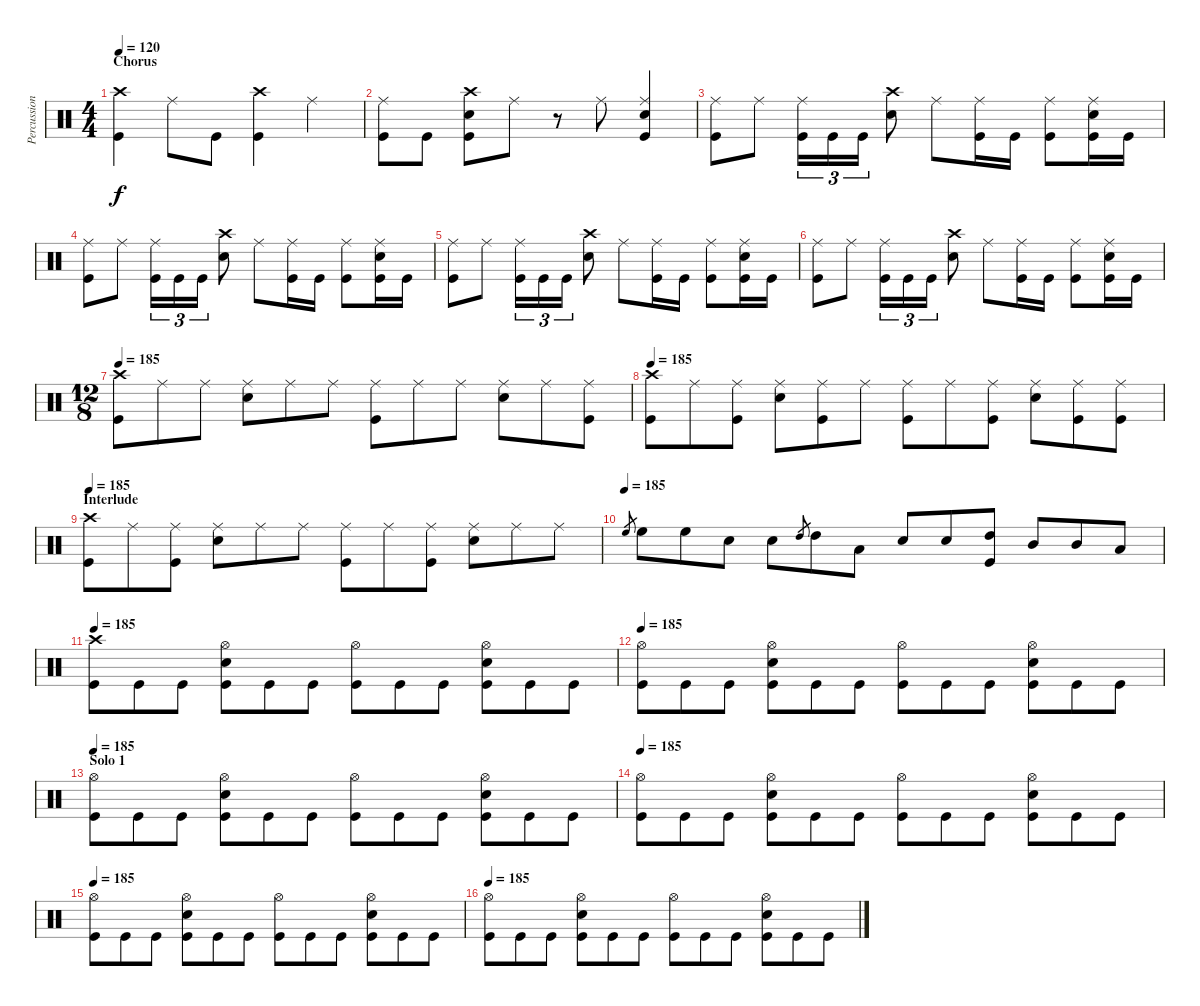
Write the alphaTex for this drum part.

\track ("Percussion" "Percussion") {instrument percussion}
\staff {score}
\articulation defaults
\ts (4 4)
\section ("" "Chorus")
\tempo 120
\clef neutral
\ks c
("Crash high (hit)" "Kick (hit)").4{dy f} "Ride (middle)".8 "Kick (hit)".8 ("Crash high (hit)" "Kick (hit)").4 "Ride (middle)".4 |
("Ride (middle)" "Kick (hit)").8 "Kick (hit)".8 ("Crash high (hit)" "Snare (hit) 2" "Kick (hit)").8 "Ride (middle)".8 r.8 "Ride (middle)".8 ("Ride (middle)" "Snare (hit) 2" "Kick (hit)").4 |
("Ride (middle)" "Kick (hit)").8 "Ride (middle)".8 ("Ride (middle)" "Kick (hit)").16{tu (3 2)} "Kick (hit)".16{tu (3 2)} "Kick (hit)".16{tu (3 2)} ("Crash high (hit)" "Snare (hit) 2").8 "Ride (middle)".8 ("Ride (middle)" "Kick (hit)").16 "Kick (hit)".16 ("Ride (middle)" "Kick (hit)").8 ("Ride (middle)" "Snare (hit) 2" "Kick (hit)").16 "Kick (hit)".16 |
("Ride (middle)" "Kick (hit)").8 "Ride (middle)".8 ("Ride (middle)" "Kick (hit)").16{tu (3 2)} "Kick (hit)".16{tu (3 2)} "Kick (hit)".16{tu (3 2)} ("Crash high (hit)" "Snare (hit) 2").8 "Ride (middle)".8 ("Ride (middle)" "Kick (hit)").16 "Kick (hit)".16 ("Ride (middle)" "Kick (hit)").8 ("Ride (middle)" "Snare (hit) 2" "Kick (hit)").16 "Kick (hit)".16 |
("Ride (middle)" "Kick (hit)").8 "Ride (middle)".8 ("Ride (middle)" "Kick (hit)").16{tu (3 2)} "Kick (hit)".16{tu (3 2)} "Kick (hit)".16{tu (3 2)} ("Crash high (hit)" "Snare (hit) 2").8 "Ride (middle)".8 ("Ride (middle)" "Kick (hit)").16 "Kick (hit)".16 ("Ride (middle)" "Kick (hit)").8 ("Ride (middle)" "Snare (hit) 2" "Kick (hit)").16 "Kick (hit)".16 |
("Ride (middle)" "Kick (hit)").8 "Ride (middle)".8 ("Ride (middle)" "Kick (hit)").16{tu (3 2)} "Kick (hit)".16{tu (3 2)} "Kick (hit)".16{tu (3 2)} ("Crash high (hit)" "Snare (hit) 2").8 "Ride (middle)".8 ("Ride (middle)" "Kick (hit)").16 "Kick (hit)".16 ("Ride (middle)" "Kick (hit)").8 ("Ride (middle)" "Snare (hit) 2" "Kick (hit)").16 "Kick (hit)".16 |
\ts (12 8)
\tempo 185
("Crash high (hit)" "Kick (hit)").8 "Ride (middle)".8 "Ride (middle)".8 ("Ride (middle)" "Snare (hit) 2").8 "Ride (middle)".8 "Ride (middle)".8 ("Ride (middle)" "Kick (hit)").8 "Ride (middle)".8 "Ride (middle)".8 ("Ride (middle)" "Snare (hit) 2").8 "Ride (middle)".8 ("Ride (middle)" "Kick (hit)").8 |
\tempo 185
("Crash high (hit)" "Kick (hit)").8 "Ride (middle)".8 ("Ride (middle)" "Kick (hit)").8 ("Ride (middle)" "Snare (hit) 2").8 ("Ride (middle)" "Kick (hit)").8 "Ride (middle)".8 ("Ride (middle)" "Kick (hit)").8 "Ride (middle)".8 ("Ride (middle)" "Kick (hit)").8 ("Ride (middle)" "Snare (hit) 2").8 ("Ride (middle)" "Kick (hit)").8 ("Ride (middle)" "Kick (hit)").8 |
\section ("" "Interlude")
\tempo 185
("Crash high (hit)" "Kick (hit)").8 "Ride (middle)".8 ("Ride (middle)" "Kick (hit)").8 ("Ride (middle)" "Snare (hit) 2").8 "Ride (middle)".8 "Ride (middle)".8 ("Ride (middle)" "Kick (hit)").8 "Ride (middle)".8 ("Ride (middle)" "Kick (hit)").8 ("Ride (middle)" "Snare (hit) 2").8 "Ride (middle)".8 "Ride (middle)".8 |
\tempo (185)
"High Floor Tom (hit)".8{gr} "High Floor Tom (hit)".8 "High Floor Tom (hit)".8 "Snare (hit) 2".8 "Snare (hit) 2".8 "High Tom (hit)".8{gr} "High Tom (hit)".8 "Low Tom (hit)".8 "Snare (hit) 2".8 "Snare (hit) 2".8 ("High Tom (hit)" "Kick (hit)").8 "Mid Tom (hit)".8 "Mid Tom (hit)".8 "Low Tom (hit)".8 |
\tempo 185
("Crash high (hit)" "Kick (hit)").8 "Kick (hit)".8 "Kick (hit)".8 ("Hi-Hat (open)" "Snare (hit) 2" "Kick (hit)").8 "Kick (hit)".8 "Kick (hit)".8 ("Hi-Hat (open)" "Kick (hit)").8 "Kick (hit)".8 "Kick (hit)".8 ("Hi-Hat (open)" "Snare (hit) 2" "Kick (hit)").8 "Kick (hit)".8 "Kick (hit)".8 |
\tempo 185
("Hi-Hat (open)" "Kick (hit)").8 "Kick (hit)".8 "Kick (hit)".8 ("Hi-Hat (open)" "Snare (hit) 2" "Kick (hit)").8 "Kick (hit)".8 "Kick (hit)".8 ("Hi-Hat (open)" "Kick (hit)").8 "Kick (hit)".8 "Kick (hit)".8 ("Hi-Hat (open)" "Snare (hit) 2" "Kick (hit)").8 "Kick (hit)".8 "Kick (hit)".8 |
\section ("" "Solo 1")
\tempo 185
("Hi-Hat (open)" "Kick (hit)").8 "Kick (hit)".8 "Kick (hit)".8 ("Hi-Hat (open)" "Snare (hit) 2" "Kick (hit)").8 "Kick (hit)".8 "Kick (hit)".8 ("Hi-Hat (open)" "Kick (hit)").8 "Kick (hit)".8 "Kick (hit)".8 ("Hi-Hat (open)" "Snare (hit) 2" "Kick (hit)").8 "Kick (hit)".8 "Kick (hit)".8 |
\tempo 185
("Hi-Hat (open)" "Kick (hit)").8 "Kick (hit)".8 "Kick (hit)".8 ("Hi-Hat (open)" "Snare (hit) 2" "Kick (hit)").8 "Kick (hit)".8 "Kick (hit)".8 ("Hi-Hat (open)" "Kick (hit)").8 "Kick (hit)".8 "Kick (hit)".8 ("Hi-Hat (open)" "Snare (hit) 2" "Kick (hit)").8 "Kick (hit)".8 "Kick (hit)".8 |
\tempo 185
("Hi-Hat (open)" "Kick (hit)").8 "Kick (hit)".8 "Kick (hit)".8 ("Hi-Hat (open)" "Snare (hit) 2" "Kick (hit)").8 "Kick (hit)".8 "Kick (hit)".8 ("Hi-Hat (open)" "Kick (hit)").8 "Kick (hit)".8 "Kick (hit)".8 ("Hi-Hat (open)" "Snare (hit) 2" "Kick (hit)").8 "Kick (hit)".8 "Kick (hit)".8 |
\tempo 185
("Hi-Hat (open)" "Kick (hit)").8 "Kick (hit)".8 "Kick (hit)".8 ("Hi-Hat (open)" "Snare (hit) 2" "Kick (hit)").8 "Kick (hit)".8 "Kick (hit)".8 ("Hi-Hat (open)" "Kick (hit)").8 "Kick (hit)".8 "Kick (hit)".8 ("Hi-Hat (open)" "Snare (hit) 2" "Kick (hit)").8 "Kick (hit)".8 "Kick (hit)".8
